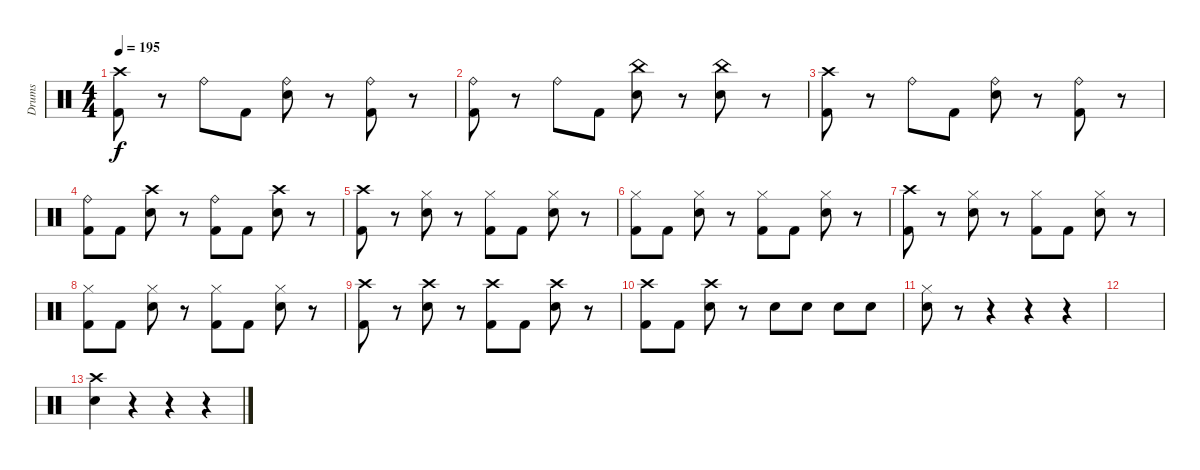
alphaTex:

\track ("Drums" "Drums") {instrument percussion}
\staff {score}
\articulation defaults
\ts (4 4)
\tempo 195
\clef neutral
\ks c
("Crash high (hit)" "Kick (hit) 2").8{dy f} r.8 "Ride (bell)".8 "Kick (hit) 2".8 ("Ride (bell)" "Electric Snare (hit)").8 r.8 ("Ride (bell)" "Kick (hit) 2").8 r.8 |
("Ride (bell)" "Kick (hit) 2").8 r.8 "Ride (bell)".8 "Kick (hit) 2".8 ("China (hit)" "Electric Snare (hit)").8 r.8 ("China (hit)" "Electric Snare (hit)").8 r.8 |
("Crash high (hit)" "Kick (hit) 2").8 r.8 "Ride (bell)".8 "Kick (hit) 2".8 ("Ride (bell)" "Electric Snare (hit)").8 r.8 ("Ride (bell)" "Kick (hit) 2").8 r.8 |
("Ride (bell)" "Kick (hit) 2").8 "Kick (hit) 2".8 ("Crash high (hit)" "Electric Snare (hit)").8 r.8 ("Ride (bell)" "Kick (hit) 2").8 "Kick (hit) 2".8 ("Crash high (hit)" "Electric Snare (hit)").8 r.8 |
("Crash high (hit)" "Kick (hit) 2").8 r.8 ("Hi-Hat (closed)" "Electric Snare (hit)").8 r.8 ("Hi-Hat (closed)" "Kick (hit) 2").8 "Kick (hit) 2".8 ("Hi-Hat (closed)" "Electric Snare (hit)").8 r.8 |
("Hi-Hat (closed)" "Kick (hit) 2").8 "Kick (hit) 2".8 ("Hi-Hat (closed)" "Electric Snare (hit)").8 r.8 ("Hi-Hat (closed)" "Kick (hit) 2").8 "Kick (hit) 2".8 ("Hi-Hat (closed)" "Electric Snare (hit)").8 r.8 |
("Crash high (hit)" "Kick (hit) 2").8 r.8 ("Hi-Hat (closed)" "Electric Snare (hit)").8 r.8 ("Hi-Hat (closed)" "Kick (hit) 2").8 "Kick (hit) 2".8 ("Hi-Hat (closed)" "Electric Snare (hit)").8 r.8 |
("Hi-Hat (closed)" "Kick (hit) 2").8 "Kick (hit) 2".8 ("Hi-Hat (closed)" "Electric Snare (hit)").8 r.8 ("Hi-Hat (closed)" "Kick (hit) 2").8 "Kick (hit) 2".8 ("Hi-Hat (closed)" "Electric Snare (hit)").8 r.8 |
("Crash high (hit)" "Kick (hit) 2").8 r.8 ("Crash high (hit)" "Electric Snare (hit)").8 r.8 ("Crash high (hit)" "Kick (hit) 2").8 "Kick (hit) 2".8 ("Crash high (hit)" "Electric Snare (hit)").8 r.8 |
("Crash high (hit)" "Kick (hit) 2").8 "Kick (hit) 2".8 ("Crash high (hit)" "Electric Snare (hit)").8 r.8 "Electric Snare (hit)".8 "Electric Snare (hit)".8 "Electric Snare (hit)".8 "Electric Snare (hit)".8 |
("Hi-Hat (closed)" "Electric Snare (hit)").8 r.8 r.4 r.4 r.4 |
|
("Crash high (hit)" "Electric Snare (hit)").4 r.4 r.4 r.4
